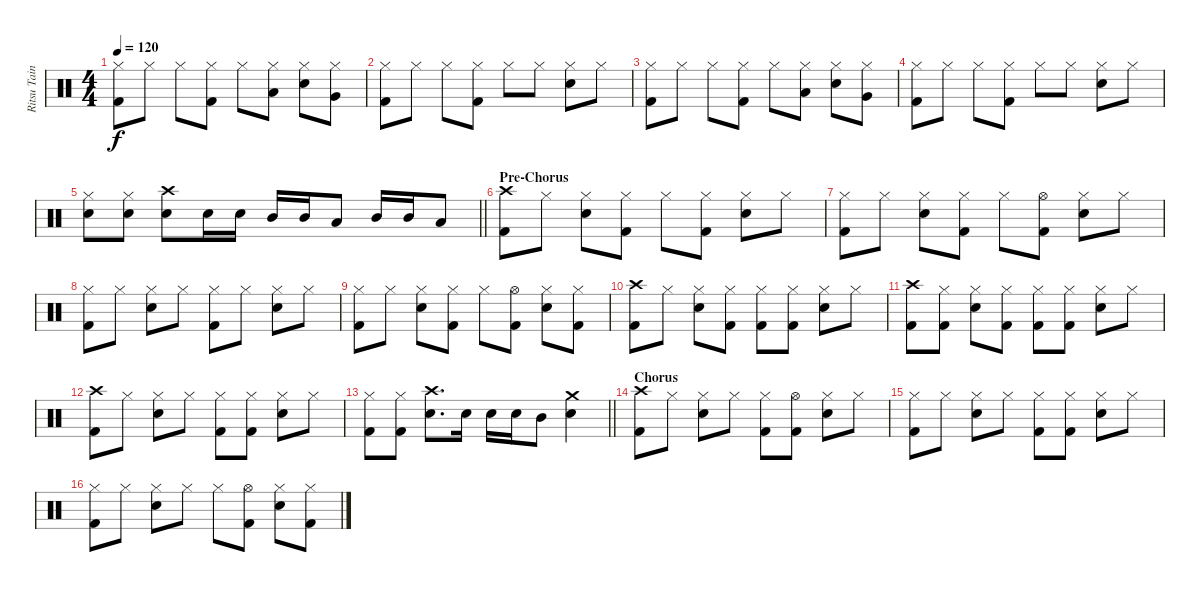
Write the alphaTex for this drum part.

\track ("Ritsu Tainaka" "Ritsu Tain") {instrument percussion}
\staff {score}
\articulation defaults
\ts (4 4)
\tempo 120
\clef neutral
\ks c
("Hi-Hat (closed)" "Kick (hit) 2").8{dy f} "Hi-Hat (closed)".8 "Hi-Hat (closed)".8 ("Hi-Hat (closed)" "Kick (hit) 2").8 "Hi-Hat (closed)".8 ("Low Tom (hit)" "Hi-Hat (closed)").8 ("Hi-Hat (closed)" "Snare (hit) 2").8 ("Very Low Tom (hit)" "Hi-Hat (closed)").8 |
("Hi-Hat (closed)" "Kick (hit) 2").8 "Hi-Hat (closed)".8 "Hi-Hat (closed)".8 ("Hi-Hat (closed)" "Kick (hit) 2").8 "Hi-Hat (closed)".8 "Hi-Hat (closed)".8 ("Hi-Hat (closed)" "Snare (hit) 2").8 "Hi-Hat (closed)".8 |
("Hi-Hat (closed)" "Kick (hit) 2").8 "Hi-Hat (closed)".8 "Hi-Hat (closed)".8 ("Hi-Hat (closed)" "Kick (hit) 2").8 "Hi-Hat (closed)".8 ("Low Tom (hit)" "Hi-Hat (closed)").8 ("Hi-Hat (closed)" "Snare (hit) 2").8 ("Very Low Tom (hit)" "Hi-Hat (closed)").8 |
("Hi-Hat (closed)" "Kick (hit) 2").8 "Hi-Hat (closed)".8 "Hi-Hat (closed)".8 ("Hi-Hat (closed)" "Kick (hit) 2").8 "Hi-Hat (closed)".8 "Hi-Hat (closed)".8 ("Hi-Hat (closed)" "Snare (hit) 2").8 "Hi-Hat (closed)".8 |
\barLineRight lightlight
("Hi-Hat (closed)" "Snare (hit) 2").8 ("Hi-Hat (closed)" "Snare (hit) 2").8 ("Crash high (hit)" "Snare (hit) 2").8 "Snare (hit) 2".16 "Snare (hit) 2".16 "Mid Tom (hit)".16 "Mid Tom (hit)".16 "Low Tom (hit)".8 "Mid Tom (hit)".16 "Mid Tom (hit)".16 "Low Tom (hit)".8 |
\section ("" "Pre-Chorus")
("Crash high (hit)" "Kick (hit) 2").8 "Hi-Hat (closed)".8 ("Hi-Hat (closed)" "Snare (hit) 2").8 ("Hi-Hat (closed)" "Kick (hit) 2").8 "Hi-Hat (closed)".8 ("Hi-Hat (closed)" "Kick (hit) 2").8 ("Hi-Hat (closed)" "Snare (hit) 2").8 "Hi-Hat (closed)".8 |
("Hi-Hat (closed)" "Kick (hit) 2").8 "Hi-Hat (closed)".8 ("Hi-Hat (closed)" "Snare (hit) 2").8 ("Hi-Hat (closed)" "Kick (hit) 2").8 "Hi-Hat (closed)".8 ("Hi-Hat (open)" "Kick (hit) 2").8 ("Hi-Hat (closed)" "Snare (hit) 2").8 "Hi-Hat (closed)".8 |
("Hi-Hat (closed)" "Kick (hit) 2").8 "Hi-Hat (closed)".8 ("Hi-Hat (closed)" "Snare (hit) 2").8 "Hi-Hat (closed)".8 ("Hi-Hat (closed)" "Kick (hit) 2").8 "Hi-Hat (closed)".8 ("Hi-Hat (closed)" "Snare (hit) 2").8 "Hi-Hat (closed)".8 |
("Hi-Hat (closed)" "Kick (hit) 2").8 "Hi-Hat (closed)".8 ("Hi-Hat (closed)" "Snare (hit) 2").8 ("Hi-Hat (closed)" "Kick (hit) 2").8 "Hi-Hat (closed)".8 ("Hi-Hat (open)" "Kick (hit) 2").8 ("Hi-Hat (closed)" "Snare (hit) 2").8 ("Hi-Hat (closed)" "Kick (hit) 2").8 |
("Crash high (hit)" "Kick (hit) 2").8 "Hi-Hat (closed)".8 ("Hi-Hat (closed)" "Snare (hit) 2").8 ("Hi-Hat (closed)" "Kick (hit) 2").8 ("Hi-Hat (closed)" "Kick (hit) 2").8 ("Hi-Hat (closed)" "Kick (hit) 2").8 ("Hi-Hat (closed)" "Snare (hit) 2").8 "Hi-Hat (closed)".8 |
("Crash high (hit)" "Kick (hit) 2").8 ("Hi-Hat (closed)" "Kick (hit) 2").8 ("Hi-Hat (closed)" "Snare (hit) 2").8 ("Hi-Hat (closed)" "Kick (hit) 2").8 ("Hi-Hat (closed)" "Kick (hit) 2").8 ("Hi-Hat (closed)" "Kick (hit) 2").8 ("Hi-Hat (closed)" "Snare (hit) 2").8 "Hi-Hat (closed)".8 |
("Crash high (hit)" "Kick (hit) 2").8 "Hi-Hat (closed)".8 ("Hi-Hat (closed)" "Snare (hit) 2").8 "Hi-Hat (closed)".8 ("Hi-Hat (closed)" "Kick (hit) 2").8 ("Hi-Hat (closed)" "Kick (hit) 2").8 ("Hi-Hat (closed)" "Snare (hit) 2").8 "Hi-Hat (closed)".8 |
\barLineRight lightlight
("Hi-Hat (closed)" "Kick (hit) 2").8 ("Hi-Hat (closed)" "Kick (hit) 2").8 ("Crash high (hit)" "Snare (hit) 2").8{d} "Snare (hit) 2".16 "Snare (hit) 2".16 "Snare (hit) 2".16 "Mid Tom (hit)".8 ("Crash medium (hit)" "Snare (hit) 2").4 |
\section ("" "Chorus")
("Crash high (hit)" "Kick (hit) 2").8 "Hi-Hat (closed)".8 ("Hi-Hat (closed)" "Snare (hit) 2").8 "Hi-Hat (closed)".8 ("Hi-Hat (closed)" "Kick (hit) 2").8 ("Hi-Hat (open)" "Kick (hit) 2").8 ("Hi-Hat (closed)" "Snare (hit) 2").8 "Hi-Hat (closed)".8 |
("Hi-Hat (closed)" "Kick (hit) 2").8 "Hi-Hat (closed)".8 ("Hi-Hat (closed)" "Snare (hit) 2").8 "Hi-Hat (closed)".8 ("Hi-Hat (closed)" "Kick (hit) 2").8 ("Hi-Hat (closed)" "Kick (hit) 2").8 ("Hi-Hat (closed)" "Snare (hit) 2").8 "Hi-Hat (closed)".8 |
("Hi-Hat (closed)" "Kick (hit) 2").8 "Hi-Hat (closed)".8 ("Hi-Hat (closed)" "Snare (hit) 2").8 "Hi-Hat (closed)".8 "Hi-Hat (closed)".8 ("Hi-Hat (open)" "Kick (hit) 2").8 ("Hi-Hat (closed)" "Snare (hit) 2").8 ("Hi-Hat (closed)" "Kick (hit) 2").8
